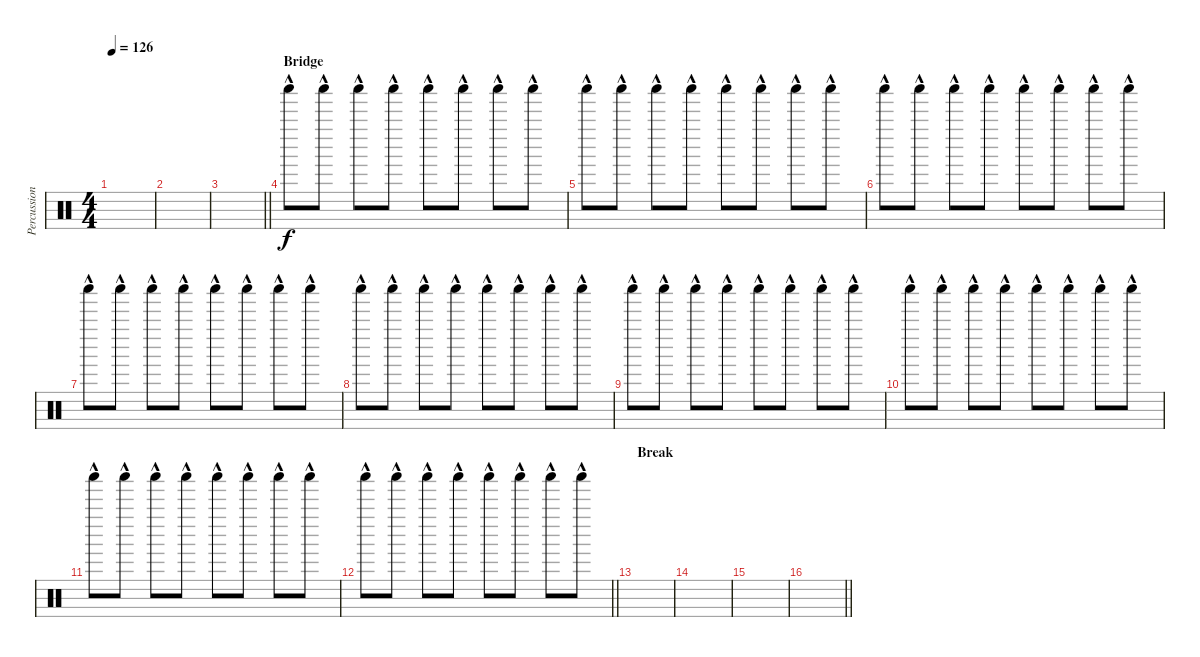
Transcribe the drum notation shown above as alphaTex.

\track ("Percussion" "Percussion") {instrument percussion}
\staff {score}
\articulation defaults
\ts (4 4)
\tempo 126
\clef neutral
\ks c
|
|
\barLineRight lightlight
|
\section ("" "Bridge")
"Shaker (hit)"{hac}.8 "Shaker (hit)"{hac}.8 "Shaker (hit)"{hac}.8 "Shaker (hit)"{hac}.8 "Shaker (hit)"{hac}.8 "Shaker (hit)"{hac}.8 "Shaker (hit)"{hac}.8 "Shaker (hit)"{hac}.8 |
"Shaker (hit)"{hac}.8 "Shaker (hit)"{hac}.8 "Shaker (hit)"{hac}.8 "Shaker (hit)"{hac}.8 "Shaker (hit)"{hac}.8 "Shaker (hit)"{hac}.8 "Shaker (hit)"{hac}.8 "Shaker (hit)"{hac}.8 |
"Shaker (hit)"{hac}.8 "Shaker (hit)"{hac}.8 "Shaker (hit)"{hac}.8 "Shaker (hit)"{hac}.8 "Shaker (hit)"{hac}.8 "Shaker (hit)"{hac}.8 "Shaker (hit)"{hac}.8 "Shaker (hit)"{hac}.8 |
"Shaker (hit)"{hac}.8 "Shaker (hit)"{hac}.8 "Shaker (hit)"{hac}.8 "Shaker (hit)"{hac}.8 "Shaker (hit)"{hac}.8 "Shaker (hit)"{hac}.8 "Shaker (hit)"{hac}.8 "Shaker (hit)"{hac}.8 |
"Shaker (hit)"{hac}.8 "Shaker (hit)"{hac}.8 "Shaker (hit)"{hac}.8 "Shaker (hit)"{hac}.8 "Shaker (hit)"{hac}.8 "Shaker (hit)"{hac}.8 "Shaker (hit)"{hac}.8 "Shaker (hit)"{hac}.8 |
"Shaker (hit)"{hac}.8 "Shaker (hit)"{hac}.8 "Shaker (hit)"{hac}.8 "Shaker (hit)"{hac}.8 "Shaker (hit)"{hac}.8 "Shaker (hit)"{hac}.8 "Shaker (hit)"{hac}.8 "Shaker (hit)"{hac}.8 |
"Shaker (hit)"{hac}.8 "Shaker (hit)"{hac}.8 "Shaker (hit)"{hac}.8 "Shaker (hit)"{hac}.8 "Shaker (hit)"{hac}.8 "Shaker (hit)"{hac}.8 "Shaker (hit)"{hac}.8 "Shaker (hit)"{hac}.8 |
"Shaker (hit)"{hac}.8 "Shaker (hit)"{hac}.8 "Shaker (hit)"{hac}.8 "Shaker (hit)"{hac}.8 "Shaker (hit)"{hac}.8 "Shaker (hit)"{hac}.8 "Shaker (hit)"{hac}.8 "Shaker (hit)"{hac}.8 |
\barLineRight lightlight "Shaker (hit)"{hac}.8 "Shaker (hit)"{hac}.8 "Shaker (hit)"{hac}.8 "Shaker (hit)"{hac}.8 "Shaker (hit)"{hac}.8 "Shaker (hit)"{hac}.8 "Shaker (hit)"{hac}.8 "Shaker (hit)"{hac}.8
|
\section ("" "Break")
|
|
|
\barLineRight lightlight
